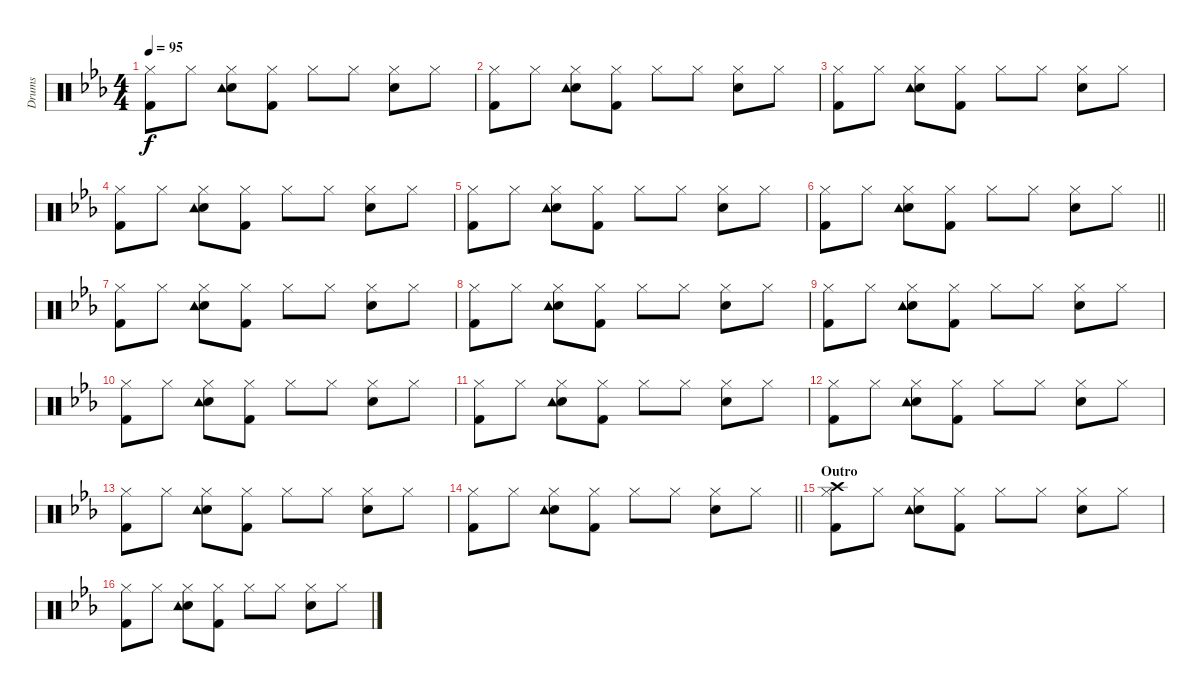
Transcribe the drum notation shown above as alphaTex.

\track ("Drums" "Drums") {instrument percussion}
\staff {score}
\articulation defaults
\ts (4 4)
\tempo 95
\clef neutral
\ks eb
("Hi-Hat (closed)" "Kick (hit) 2").8{dy f} "Hi-Hat (closed)".8 ("Hi-Hat (closed)" "Snare (hit) 2" "Tambourine (hit)").8 ("Hi-Hat (closed)" "Kick (hit) 2").8 "Hi-Hat (closed)".8 "Hi-Hat (closed)".8 ("Hi-Hat (closed)" "Snare (hit) 2").8 "Hi-Hat (closed)".8 |
("Hi-Hat (closed)" "Kick (hit) 2").8 "Hi-Hat (closed)".8 ("Hi-Hat (closed)" "Snare (hit) 2" "Tambourine (hit)").8 ("Hi-Hat (closed)" "Kick (hit) 2").8 "Hi-Hat (closed)".8 "Hi-Hat (closed)".8 ("Hi-Hat (closed)" "Snare (hit) 2").8 "Hi-Hat (closed)".8 |
("Hi-Hat (closed)" "Kick (hit) 2").8 "Hi-Hat (closed)".8 ("Hi-Hat (closed)" "Snare (hit) 2" "Tambourine (hit)").8 ("Hi-Hat (closed)" "Kick (hit) 2").8 "Hi-Hat (closed)".8 "Hi-Hat (closed)".8 ("Hi-Hat (closed)" "Snare (hit) 2").8 "Hi-Hat (closed)".8 |
("Hi-Hat (closed)" "Kick (hit) 2").8 "Hi-Hat (closed)".8 ("Hi-Hat (closed)" "Snare (hit) 2" "Tambourine (hit)").8 ("Hi-Hat (closed)" "Kick (hit) 2").8 "Hi-Hat (closed)".8 "Hi-Hat (closed)".8 ("Hi-Hat (closed)" "Snare (hit) 2").8 "Hi-Hat (closed)".8 |
("Hi-Hat (closed)" "Kick (hit) 2").8 "Hi-Hat (closed)".8 ("Hi-Hat (closed)" "Snare (hit) 2" "Tambourine (hit)").8 ("Hi-Hat (closed)" "Kick (hit) 2").8 "Hi-Hat (closed)".8 "Hi-Hat (closed)".8 ("Hi-Hat (closed)" "Snare (hit) 2").8 "Hi-Hat (closed)".8 |
\barLineRight lightlight
("Hi-Hat (closed)" "Kick (hit) 2").8 "Hi-Hat (closed)".8 ("Hi-Hat (closed)" "Snare (hit) 2" "Tambourine (hit)").8 ("Hi-Hat (closed)" "Kick (hit) 2").8 "Hi-Hat (closed)".8 "Hi-Hat (closed)".8 ("Hi-Hat (closed)" "Snare (hit) 2").8 "Hi-Hat (closed)".8 |
\section ("" "")
("Hi-Hat (closed)" "Kick (hit) 2").8 "Hi-Hat (closed)".8 ("Hi-Hat (closed)" "Snare (hit) 2" "Tambourine (hit)").8 ("Hi-Hat (closed)" "Kick (hit) 2").8 "Hi-Hat (closed)".8 "Hi-Hat (closed)".8 ("Hi-Hat (closed)" "Snare (hit) 2").8 "Hi-Hat (closed)".8 |
("Hi-Hat (closed)" "Kick (hit) 2").8 "Hi-Hat (closed)".8 ("Hi-Hat (closed)" "Snare (hit) 2" "Tambourine (hit)").8 ("Hi-Hat (closed)" "Kick (hit) 2").8 "Hi-Hat (closed)".8 "Hi-Hat (closed)".8 ("Hi-Hat (closed)" "Snare (hit) 2").8 "Hi-Hat (closed)".8 |
("Hi-Hat (closed)" "Kick (hit) 2").8 "Hi-Hat (closed)".8 ("Hi-Hat (closed)" "Snare (hit) 2" "Tambourine (hit)").8 ("Hi-Hat (closed)" "Kick (hit) 2").8 "Hi-Hat (closed)".8 "Hi-Hat (closed)".8 ("Hi-Hat (closed)" "Snare (hit) 2").8 "Hi-Hat (closed)".8 |
("Hi-Hat (closed)" "Kick (hit) 2").8 "Hi-Hat (closed)".8 ("Hi-Hat (closed)" "Snare (hit) 2" "Tambourine (hit)").8 ("Hi-Hat (closed)" "Kick (hit) 2").8 "Hi-Hat (closed)".8 "Hi-Hat (closed)".8 ("Hi-Hat (closed)" "Snare (hit) 2").8 "Hi-Hat (closed)".8 |
("Hi-Hat (closed)" "Kick (hit) 2").8 "Hi-Hat (closed)".8 ("Hi-Hat (closed)" "Snare (hit) 2" "Tambourine (hit)").8 ("Hi-Hat (closed)" "Kick (hit) 2").8 "Hi-Hat (closed)".8 "Hi-Hat (closed)".8 ("Hi-Hat (closed)" "Snare (hit) 2").8 "Hi-Hat (closed)".8 |
("Hi-Hat (closed)" "Kick (hit) 2").8 "Hi-Hat (closed)".8 ("Hi-Hat (closed)" "Snare (hit) 2" "Tambourine (hit)").8 ("Hi-Hat (closed)" "Kick (hit) 2").8 "Hi-Hat (closed)".8 "Hi-Hat (closed)".8 ("Hi-Hat (closed)" "Snare (hit) 2").8 "Hi-Hat (closed)".8 |
("Hi-Hat (closed)" "Kick (hit) 2").8 "Hi-Hat (closed)".8 ("Hi-Hat (closed)" "Snare (hit) 2" "Tambourine (hit)").8 ("Hi-Hat (closed)" "Kick (hit) 2").8 "Hi-Hat (closed)".8 "Hi-Hat (closed)".8 ("Hi-Hat (closed)" "Snare (hit) 2").8 "Hi-Hat (closed)".8 |
\barLineRight lightlight
("Hi-Hat (closed)" "Kick (hit) 2").8 "Hi-Hat (closed)".8 ("Hi-Hat (closed)" "Snare (hit) 2" "Tambourine (hit)").8 ("Hi-Hat (closed)" "Kick (hit) 2").8 "Hi-Hat (closed)".8 "Hi-Hat (closed)".8 ("Hi-Hat (closed)" "Snare (hit) 2").8 "Hi-Hat (closed)".8 |
\section ("" "Outro")
("Hi-Hat (closed)" "Crash high (hit)" "Kick (hit) 2").8 "Hi-Hat (closed)".8 ("Hi-Hat (closed)" "Snare (hit) 2" "Tambourine (hit)").8 ("Hi-Hat (closed)" "Kick (hit) 2").8 "Hi-Hat (closed)".8 "Hi-Hat (closed)".8 ("Hi-Hat (closed)" "Snare (hit) 2").8 "Hi-Hat (closed)".8 |
("Hi-Hat (closed)" "Kick (hit) 2").8 "Hi-Hat (closed)".8 ("Hi-Hat (closed)" "Snare (hit) 2" "Tambourine (hit)").8 ("Hi-Hat (closed)" "Kick (hit) 2").8 "Hi-Hat (closed)".8 "Hi-Hat (closed)".8 ("Hi-Hat (closed)" "Snare (hit) 2").8 "Hi-Hat (closed)".8
